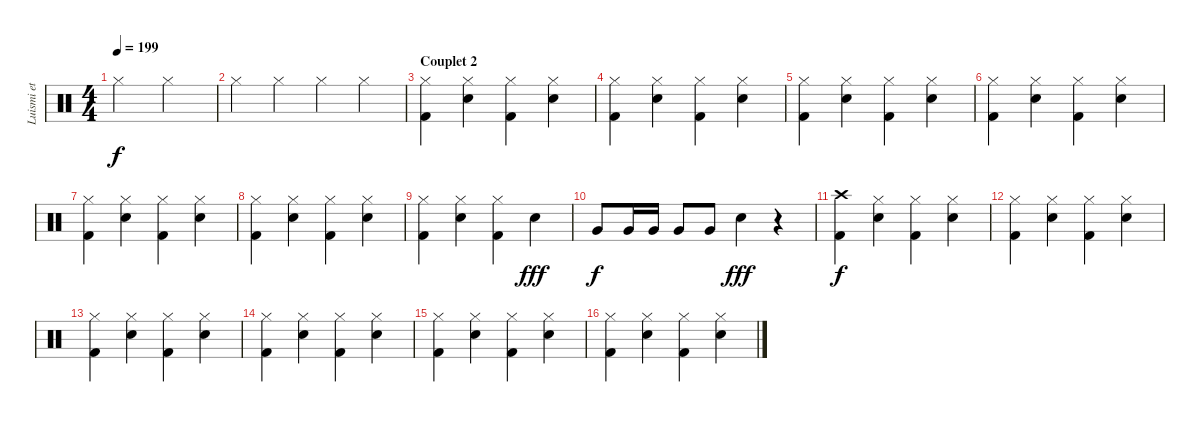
\track ("Luismi et ses castagnettes" "Luismi et ") {instrument percussion}
\staff {score}
\articulation defaults
\ts (4 4)
\tempo 199
\clef neutral
\ks c "Hi-Hat (closed)".2{dy f volume 14} "Hi-Hat (closed)".2
|
"Hi-Hat (closed)".4 "Hi-Hat (closed)".4 "Hi-Hat (closed)".4 "Hi-Hat (closed)".4 |
\section ("" "Couplet 2")
("Hi-Hat (closed)" "Kick (hit) 2").4 ("Hi-Hat (closed)" "Snare (hit) 2").4 ("Hi-Hat (closed)" "Kick (hit) 2").4 ("Hi-Hat (closed)" "Snare (hit) 2").4 |
("Hi-Hat (closed)" "Kick (hit) 2").4 ("Hi-Hat (closed)" "Snare (hit) 2").4 ("Hi-Hat (closed)" "Kick (hit) 2").4 ("Hi-Hat (closed)" "Snare (hit) 2").4 |
("Hi-Hat (closed)" "Kick (hit) 2").4 ("Hi-Hat (closed)" "Snare (hit) 2").4 ("Hi-Hat (closed)" "Kick (hit) 2").4 ("Hi-Hat (closed)" "Snare (hit) 2").4 |
("Hi-Hat (closed)" "Kick (hit) 2").4 ("Hi-Hat (closed)" "Snare (hit) 2").4 ("Hi-Hat (closed)" "Kick (hit) 2").4 ("Hi-Hat (closed)" "Snare (hit) 2").4 |
("Hi-Hat (closed)" "Kick (hit) 2").4 ("Hi-Hat (closed)" "Snare (hit) 2").4 ("Hi-Hat (closed)" "Kick (hit) 2").4 ("Hi-Hat (closed)" "Snare (hit) 2").4 |
("Hi-Hat (closed)" "Kick (hit) 2").4 ("Hi-Hat (closed)" "Snare (hit) 2").4 ("Hi-Hat (closed)" "Kick (hit) 2").4 ("Hi-Hat (closed)" "Snare (hit) 2").4 |
("Hi-Hat (closed)" "Kick (hit) 2").4 ("Hi-Hat (closed)" "Snare (hit) 2").4 ("Hi-Hat (closed)" "Kick (hit) 2").4 "Snare (hit) 2".4{dy fff} |
"Very Low Tom (hit)".8{dy f} "Very Low Tom (hit)".16 "Very Low Tom (hit)".16 "Very Low Tom (hit)".8 "Very Low Tom (hit)".8 "Snare (hit) 2".4{dy fff} r.4 |
("Crash high (hit)" "Kick (hit) 2").4{dy f} ("Hi-Hat (closed)" "Snare (hit) 2").4 ("Hi-Hat (closed)" "Kick (hit) 2").4 ("Hi-Hat (closed)" "Snare (hit) 2").4 |
("Hi-Hat (closed)" "Kick (hit) 2").4 ("Hi-Hat (closed)" "Snare (hit) 2").4 ("Hi-Hat (closed)" "Kick (hit) 2").4 ("Hi-Hat (closed)" "Snare (hit) 2").4 |
("Hi-Hat (closed)" "Kick (hit) 2").4 ("Hi-Hat (closed)" "Snare (hit) 2").4 ("Hi-Hat (closed)" "Kick (hit) 2").4 ("Hi-Hat (closed)" "Snare (hit) 2").4 |
("Hi-Hat (closed)" "Kick (hit) 2").4 ("Hi-Hat (closed)" "Snare (hit) 2").4 ("Hi-Hat (closed)" "Kick (hit) 2").4 ("Hi-Hat (closed)" "Snare (hit) 2").4 |
("Hi-Hat (closed)" "Kick (hit) 2").4 ("Hi-Hat (closed)" "Snare (hit) 2").4 ("Hi-Hat (closed)" "Kick (hit) 2").4 ("Hi-Hat (closed)" "Snare (hit) 2").4 |
("Hi-Hat (closed)" "Kick (hit) 2").4 ("Hi-Hat (closed)" "Snare (hit) 2").4 ("Hi-Hat (closed)" "Kick (hit) 2").4 ("Hi-Hat (closed)" "Snare (hit) 2").4
